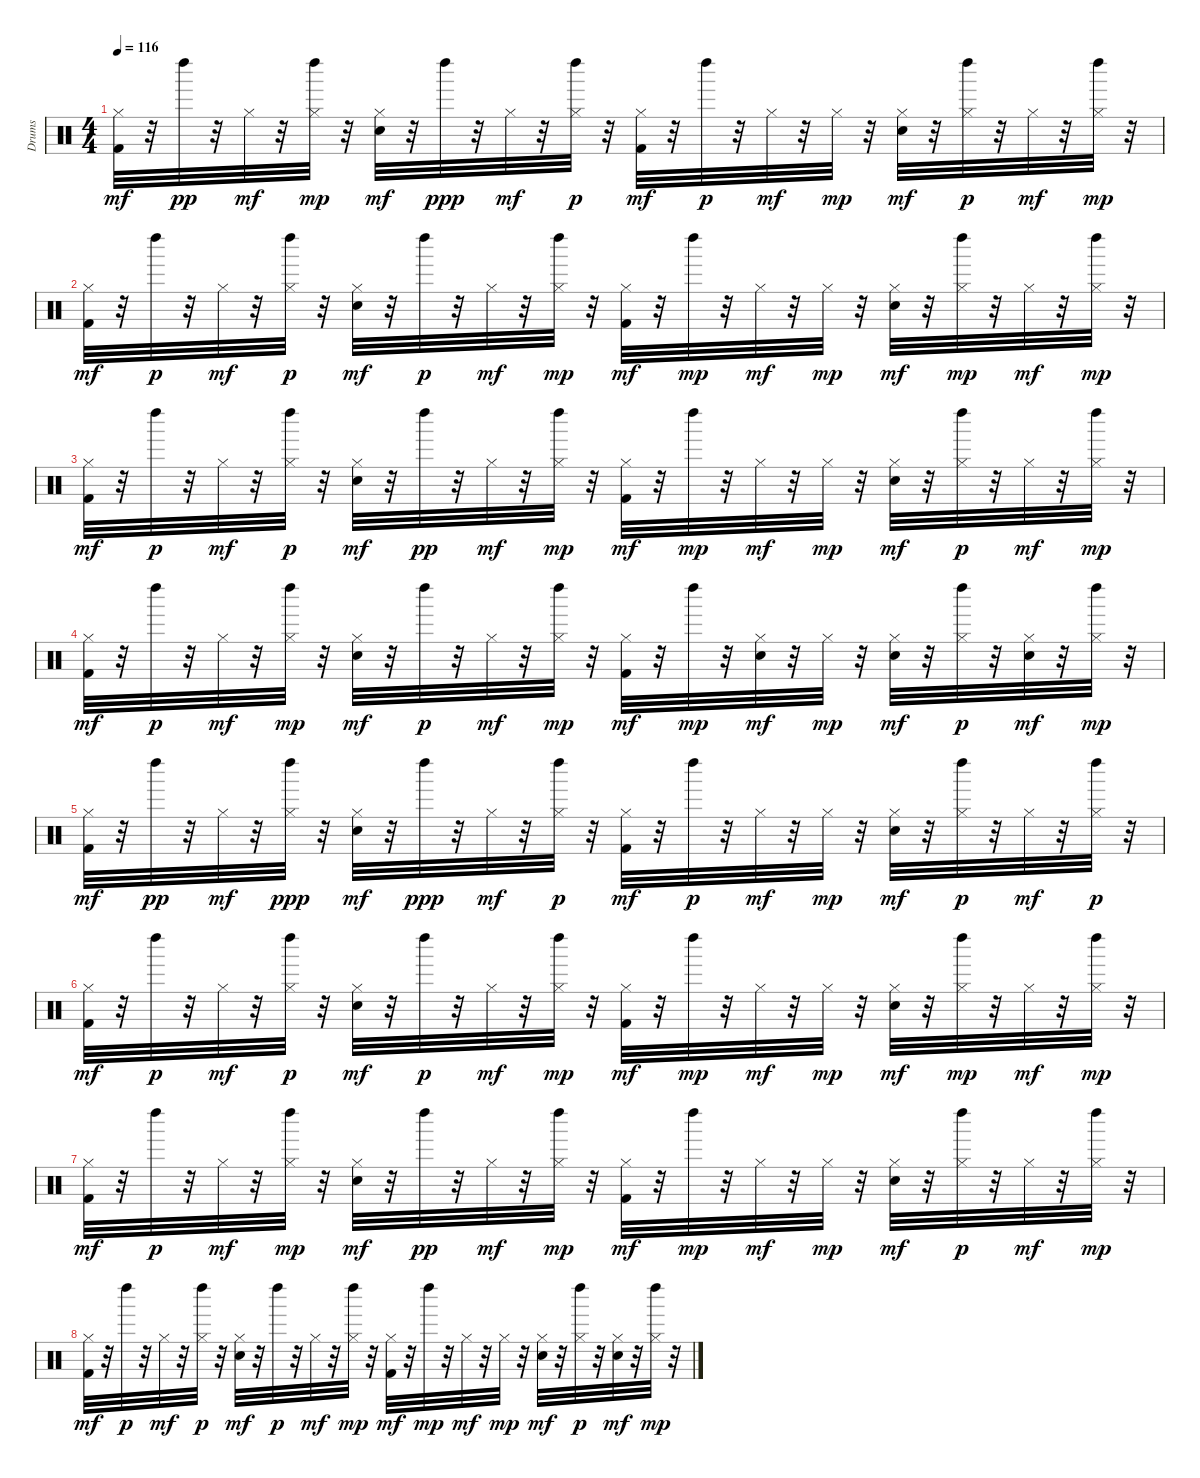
\track ("Drums" "Drums") {instrument percussion}
\staff {score}
\articulation defaults
\ts (4 4)
\tempo 116
\clef neutral
\ks c
("Hi-Hat (closed)" "Kick (hit) 2").32{dy mf} r.32 "Left Maraca (hit)".32{dy pp} r.32 "Hi-Hat (closed)".32{dy mf} r.32 ("Left Maraca (hit)" "Hi-Hat (closed)").32{dy mp} r.32 ("Hi-Hat (closed)" "Snare (hit) 2").32{dy mf} r.32 "Left Maraca (hit)".32{dy ppp} r.32 "Hi-Hat (closed)".32{dy mf} r.32 ("Hi-Hat (closed)" "Left Maraca (hit)").32{dy p} r.32 ("Kick (hit) 2" "Hi-Hat (closed)").32{dy mf} r.32 "Left Maraca (hit)".32{dy p} r.32 "Hi-Hat (closed)".32{dy mf} r.32 "Hi-Hat (closed)".32{dy mp} r.32 ("Snare (hit) 2" "Hi-Hat (closed)").32{dy mf} r.32 ("Hi-Hat (closed)" "Left Maraca (hit)").32{dy p} r.32 "Hi-Hat (closed)".32{dy mf} r.32 ("Left Maraca (hit)" "Hi-Hat (closed)").32{dy mp} r.32 |
("Hi-Hat (closed)" "Kick (hit) 2").32{dy mf} r.32 "Left Maraca (hit)".32{dy p} r.32 "Hi-Hat (closed)".32{dy mf} r.32 ("Hi-Hat (closed)" "Left Maraca (hit)").32{dy p} r.32 ("Snare (hit) 2" "Hi-Hat (closed)").32{dy mf} r.32 "Left Maraca (hit)".32{dy p} r.32 "Hi-Hat (closed)".32{dy mf} r.32 ("Hi-Hat (closed)" "Left Maraca (hit)").32{dy mp} r.32 ("Kick (hit) 2" "Hi-Hat (closed)").32{dy mf} r.32 "Left Maraca (hit)".32{dy mp} r.32 "Hi-Hat (closed)".32{dy mf} r.32 "Hi-Hat (closed)".32{dy mp} r.32 ("Hi-Hat (closed)" "Snare (hit) 2").32{dy mf} r.32 ("Left Maraca (hit)" "Hi-Hat (closed)").32{dy mp} r.32 "Hi-Hat (closed)".32{dy mf} r.32 ("Left Maraca (hit)" "Hi-Hat (closed)").32{dy mp} r.32 |
("Kick (hit) 2" "Hi-Hat (closed)").32{dy mf} r.32 "Left Maraca (hit)".32{dy p} r.32 "Hi-Hat (closed)".32{dy mf} r.32 ("Hi-Hat (closed)" "Left Maraca (hit)").32{dy p} r.32 ("Hi-Hat (closed)" "Snare (hit) 2").32{dy mf} r.32 "Left Maraca (hit)".32{dy pp} r.32 "Hi-Hat (closed)".32{dy mf} r.32 ("Hi-Hat (closed)" "Left Maraca (hit)").32{dy mp} r.32 ("Hi-Hat (closed)" "Kick (hit) 2").32{dy mf} r.32 "Left Maraca (hit)".32{dy mp} r.32 "Hi-Hat (closed)".32{dy mf} r.32 "Hi-Hat (closed)".32{dy mp} r.32 ("Hi-Hat (closed)" "Snare (hit) 2").32{dy mf} r.32 ("Hi-Hat (closed)" "Left Maraca (hit)").32{dy p} r.32 "Hi-Hat (closed)".32{dy mf} r.32 ("Hi-Hat (closed)" "Left Maraca (hit)").32{dy mp} r.32 |
("Hi-Hat (closed)" "Kick (hit) 2").32{dy mf} r.32 "Left Maraca (hit)".32{dy p} r.32 "Hi-Hat (closed)".32{dy mf} r.32 ("Left Maraca (hit)" "Hi-Hat (closed)").32{dy mp} r.32 ("Hi-Hat (closed)" "Snare (hit) 2").32{dy mf} r.32 "Left Maraca (hit)".32{dy p} r.32 "Hi-Hat (closed)".32{dy mf} r.32 ("Hi-Hat (closed)" "Left Maraca (hit)").32{dy mp} r.32 ("Kick (hit) 2" "Hi-Hat (closed)").32{dy mf} r.32 "Left Maraca (hit)".32{dy mp} r.32 ("Hi-Hat (closed)" "Snare (hit) 2").32{dy mf} r.32 "Hi-Hat (closed)".32{dy mp} r.32 ("Hi-Hat (closed)" "Snare (hit) 2").32{dy mf} r.32 ("Hi-Hat (closed)" "Left Maraca (hit)").32{dy p} r.32 ("Snare (hit) 2" "Hi-Hat (closed)").32{dy mf} r.32 ("Left Maraca (hit)" "Hi-Hat (closed)").32{dy mp} r.32 |
("Kick (hit) 2" "Hi-Hat (closed)").32{dy mf} r.32 "Left Maraca (hit)".32{dy pp} r.32 "Hi-Hat (closed)".32{dy mf} r.32 ("Hi-Hat (closed)" "Left Maraca (hit)").32{dy ppp} r.32 ("Snare (hit) 2" "Hi-Hat (closed)").32{dy mf} r.32 "Left Maraca (hit)".32{dy ppp} r.32 "Hi-Hat (closed)".32{dy mf} r.32 ("Hi-Hat (closed)" "Left Maraca (hit)").32{dy p} r.32 ("Kick (hit) 2" "Hi-Hat (closed)").32{dy mf} r.32 "Left Maraca (hit)".32{dy p} r.32 "Hi-Hat (closed)".32{dy mf} r.32 "Hi-Hat (closed)".32{dy mp} r.32 ("Snare (hit) 2" "Hi-Hat (closed)").32{dy mf} r.32 ("Hi-Hat (closed)" "Left Maraca (hit)").32{dy p} r.32 "Hi-Hat (closed)".32{dy mf} r.32 ("Hi-Hat (closed)" "Left Maraca (hit)").32{dy p} r.32 |
("Kick (hit) 2" "Hi-Hat (closed)").32{dy mf} r.32 "Left Maraca (hit)".32{dy p} r.32 "Hi-Hat (closed)".32{dy mf} r.32 ("Hi-Hat (closed)" "Left Maraca (hit)").32{dy p} r.32 ("Snare (hit) 2" "Hi-Hat (closed)").32{dy mf} r.32 "Left Maraca (hit)".32{dy p} r.32 "Hi-Hat (closed)".32{dy mf} r.32 ("Hi-Hat (closed)" "Left Maraca (hit)").32{dy mp} r.32 ("Kick (hit) 2" "Hi-Hat (closed)").32{dy mf} r.32 "Left Maraca (hit)".32{dy mp} r.32 "Hi-Hat (closed)".32{dy mf} r.32 "Hi-Hat (closed)".32{dy mp} r.32 ("Snare (hit) 2" "Hi-Hat (closed)").32{dy mf} r.32 ("Left Maraca (hit)" "Hi-Hat (closed)").32{dy mp} r.32 "Hi-Hat (closed)".32{dy mf} r.32 ("Hi-Hat (closed)" "Left Maraca (hit)").32{dy mp} r.32 |
("Kick (hit) 2" "Hi-Hat (closed)").32{dy mf} r.32 "Left Maraca (hit)".32{dy p} r.32 "Hi-Hat (closed)".32{dy mf} r.32 ("Left Maraca (hit)" "Hi-Hat (closed)").32{dy mp} r.32 ("Hi-Hat (closed)" "Snare (hit) 2").32{dy mf} r.32 "Left Maraca (hit)".32{dy pp} r.32 "Hi-Hat (closed)".32{dy mf} r.32 ("Left Maraca (hit)" "Hi-Hat (closed)").32{dy mp} r.32 ("Kick (hit) 2" "Hi-Hat (closed)").32{dy mf} r.32 "Left Maraca (hit)".32{dy mp} r.32 "Hi-Hat (closed)".32{dy mf} r.32 "Hi-Hat (closed)".32{dy mp} r.32 ("Snare (hit) 2" "Hi-Hat (closed)").32{dy mf} r.32 ("Hi-Hat (closed)" "Left Maraca (hit)").32{dy p} r.32 "Hi-Hat (closed)".32{dy mf} r.32 ("Left Maraca (hit)" "Hi-Hat (closed)").32{dy mp} r.32 |
("Hi-Hat (closed)" "Kick (hit) 2").32{dy mf} r.32 "Left Maraca (hit)".32{dy p} r.32 "Hi-Hat (closed)".32{dy mf} r.32 ("Hi-Hat (closed)" "Left Maraca (hit)").32{dy p} r.32 ("Snare (hit) 2" "Hi-Hat (closed)").32{dy mf} r.32 "Left Maraca (hit)".32{dy p} r.32 "Hi-Hat (closed)".32{dy mf} r.32 ("Hi-Hat (closed)" "Left Maraca (hit)").32{dy mp} r.32 ("Hi-Hat (closed)" "Kick (hit) 2").32{dy mf} r.32 "Left Maraca (hit)".32{dy mp} r.32 "Hi-Hat (closed)".32{dy mf} r.32 "Hi-Hat (closed)".32{dy mp} r.32 ("Hi-Hat (closed)" "Snare (hit) 2").32{dy mf} r.32 ("Hi-Hat (closed)" "Left Maraca (hit)").32{dy p} r.32 ("Snare (hit) 2" "Hi-Hat (closed)").32{dy mf} r.32 ("Hi-Hat (closed)" "Left Maraca (hit)").32{dy mp} r.32
